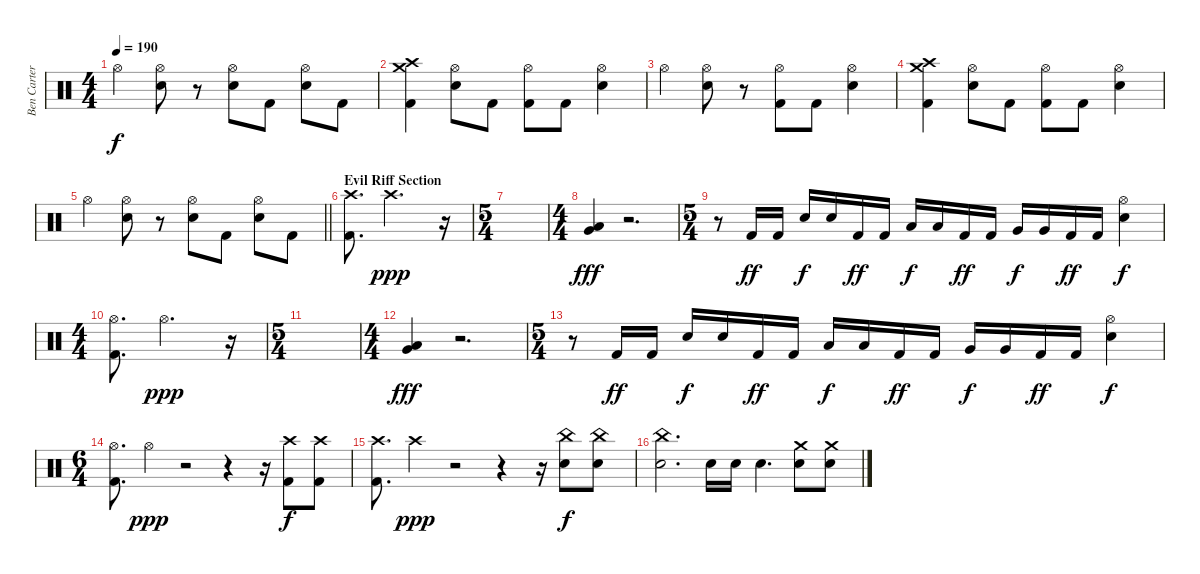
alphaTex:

\track ("Ben Carter" "Ben Carter") {instrument percussion}
\staff {score}
\articulation defaults
\ts (4 4)
\tempo 190
\clef neutral
\ks c "Hi-Hat (open)".4{dy f}
("Hi-Hat (open)" "Snare (hit) 2").8 r.8 ("Hi-Hat (open)" "Snare (hit) 2").8 "Kick (hit) 2".8 ("Hi-Hat (open)" "Snare (hit) 2").8 "Kick (hit) 2".8 |
("Crash medium (hit)" "Crash high (hit)" "Kick (hit) 2").4 ("Hi-Hat (open)" "Snare (hit) 2").8 "Kick (hit) 2".8 ("Hi-Hat (open)" "Kick (hit) 2").8 "Kick (hit) 2".8 ("Hi-Hat (open)" "Snare (hit) 2").4 |
"Hi-Hat (open)".4 ("Hi-Hat (open)" "Snare (hit) 2").8 r.8 ("Hi-Hat (open)" "Kick (hit) 2").8 "Kick (hit) 2".8 ("Hi-Hat (open)" "Snare (hit) 2").4 |
("Crash medium (hit)" "Crash high (hit)" "Kick (hit) 2").4 ("Hi-Hat (open)" "Snare (hit) 2").8 "Kick (hit) 2".8 ("Hi-Hat (open)" "Kick (hit) 2").8 "Kick (hit) 2".8 ("Hi-Hat (open)" "Snare (hit) 2").4 |
\barLineRight lightlight "Hi-Hat (open)".4
("Hi-Hat (open)" "Snare (hit) 2").8 r.8 ("Hi-Hat (open)" "Snare (hit) 2").8 "Kick (hit) 2".8 ("Hi-Hat (open)" "Snare (hit) 2").8 "Kick (hit) 2".8 |
\section ("" "Evil Riff Section")
("Crash high (hit)" "Kick (hit) 2").8{d} "Crash high (hit)".2{d dy ppp} r.16 |
\ts (5 4)
|
\ts (4 4)
("Low Tom (hit)" "Very Low Tom (hit)").4{dy fff} r.2{d} |
\ts (5 4)
r.8 "Kick (hit) 2".16{dy ff} "Kick (hit) 2".16 "Snare (hit) 2".16{dy f} "Snare (hit) 2".16 "Kick (hit) 2".16{dy ff} "Kick (hit) 2".16 "Low Tom (hit)".16{dy f} "Low Tom (hit)".16 "Kick (hit) 2".16{dy ff} "Kick (hit) 2".16 "Very Low Tom (hit)".16{dy f} "Very Low Tom (hit)".16 "Kick (hit) 2".16{dy ff} "Kick (hit) 2".16 ("Hi-Hat (open)" "Snare (hit) 2").4{dy f} |
\ts (4 4)
("Hi-Hat (open)" "Kick (hit) 2").8{d} "Hi-Hat (open)".2{d dy ppp} r.16 |
\ts (5 4)
|
\ts (4 4)
("Low Tom (hit)" "Very Low Tom (hit)").4{dy fff} r.2{d} |
\ts (5 4)
r.8 "Kick (hit) 2".16{dy ff} "Kick (hit) 2".16 "Snare (hit) 2".16{dy f} "Snare (hit) 2".16 "Kick (hit) 2".16{dy ff} "Kick (hit) 2".16 "Low Tom (hit)".16{dy f} "Low Tom (hit)".16 "Kick (hit) 2".16{dy ff} "Kick (hit) 2".16 "Very Low Tom (hit)".16{dy f} "Very Low Tom (hit)".16 "Kick (hit) 2".16{dy ff} "Kick (hit) 2".16 ("Hi-Hat (open)" "Snare (hit) 2").4{dy f} |
\ts (6 4)
("Hi-Hat (open)" "Kick (hit) 2").8{d} "Hi-Hat (open)".4{dy ppp} r.2 r.4 r.16 ("Crash high (hit)" "Kick (hit) 2").8{dy f} ("Crash high (hit)" "Kick (hit) 2").8 |
("Crash high (hit)" "Kick (hit) 2").8{d} "Crash high (hit)".4{dy ppp} r.2 r.4 r.16 ("China (hit)" "Snare (hit) 2").8{dy f} ("China (hit)" "Snare (hit) 2").8 |
("China (hit)" "Snare (hit) 2").2{d} "Snare (hit) 2".16 "Snare (hit) 2".16 "Snare (hit) 2".4{d} ("Crash medium (hit)" "Snare (hit) 2").8 ("Crash medium (hit)" "Snare (hit) 2").8
